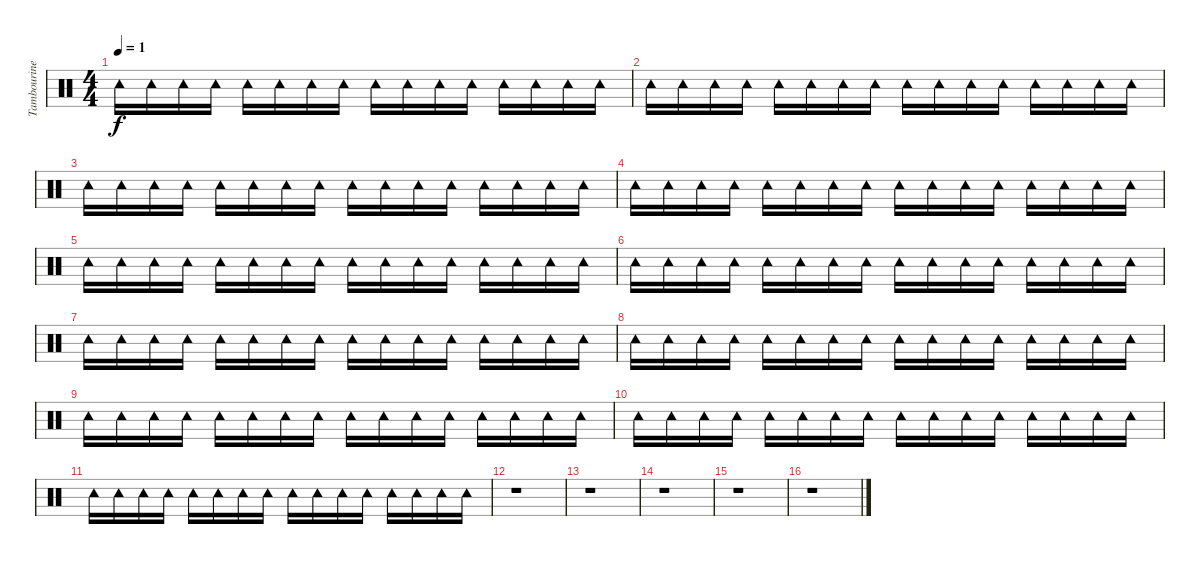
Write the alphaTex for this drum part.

\track ("Tambourine" "Tambourine") {instrument percussion}
\staff {score}
\articulation defaults
\ts (4 4)
\tempo 1
\clef neutral
\ks c "Tambourine (hit)".16{dy f} "Tambourine (hit)".16 "Tambourine (hit)".16 "Tambourine (hit)".16 "Tambourine (hit)".16 "Tambourine (hit)".16 "Tambourine (hit)".16 "Tambourine (hit)".16 "Tambourine (hit)".16 "Tambourine (hit)".16 "Tambourine (hit)".16 "Tambourine (hit)".16 "Tambourine (hit)".16 "Tambourine (hit)".16 "Tambourine (hit)".16 "Tambourine (hit)".16
|
"Tambourine (hit)".16 "Tambourine (hit)".16 "Tambourine (hit)".16 "Tambourine (hit)".16 "Tambourine (hit)".16 "Tambourine (hit)".16 "Tambourine (hit)".16 "Tambourine (hit)".16 "Tambourine (hit)".16 "Tambourine (hit)".16 "Tambourine (hit)".16 "Tambourine (hit)".16 "Tambourine (hit)".16 "Tambourine (hit)".16 "Tambourine (hit)".16 "Tambourine (hit)".16 |
"Tambourine (hit)".16 "Tambourine (hit)".16 "Tambourine (hit)".16 "Tambourine (hit)".16 "Tambourine (hit)".16 "Tambourine (hit)".16 "Tambourine (hit)".16 "Tambourine (hit)".16 "Tambourine (hit)".16 "Tambourine (hit)".16 "Tambourine (hit)".16 "Tambourine (hit)".16 "Tambourine (hit)".16 "Tambourine (hit)".16 "Tambourine (hit)".16 "Tambourine (hit)".16 |
"Tambourine (hit)".16 "Tambourine (hit)".16 "Tambourine (hit)".16 "Tambourine (hit)".16 "Tambourine (hit)".16 "Tambourine (hit)".16 "Tambourine (hit)".16 "Tambourine (hit)".16 "Tambourine (hit)".16 "Tambourine (hit)".16 "Tambourine (hit)".16 "Tambourine (hit)".16 "Tambourine (hit)".16 "Tambourine (hit)".16 "Tambourine (hit)".16 "Tambourine (hit)".16 |
"Tambourine (hit)".16 "Tambourine (hit)".16 "Tambourine (hit)".16 "Tambourine (hit)".16 "Tambourine (hit)".16 "Tambourine (hit)".16 "Tambourine (hit)".16 "Tambourine (hit)".16 "Tambourine (hit)".16 "Tambourine (hit)".16 "Tambourine (hit)".16 "Tambourine (hit)".16 "Tambourine (hit)".16 "Tambourine (hit)".16 "Tambourine (hit)".16 "Tambourine (hit)".16 |
"Tambourine (hit)".16 "Tambourine (hit)".16 "Tambourine (hit)".16 "Tambourine (hit)".16 "Tambourine (hit)".16 "Tambourine (hit)".16 "Tambourine (hit)".16 "Tambourine (hit)".16 "Tambourine (hit)".16 "Tambourine (hit)".16 "Tambourine (hit)".16 "Tambourine (hit)".16 "Tambourine (hit)".16 "Tambourine (hit)".16 "Tambourine (hit)".16 "Tambourine (hit)".16 |
"Tambourine (hit)".16 "Tambourine (hit)".16 "Tambourine (hit)".16 "Tambourine (hit)".16 "Tambourine (hit)".16 "Tambourine (hit)".16 "Tambourine (hit)".16 "Tambourine (hit)".16 "Tambourine (hit)".16 "Tambourine (hit)".16 "Tambourine (hit)".16 "Tambourine (hit)".16 "Tambourine (hit)".16 "Tambourine (hit)".16 "Tambourine (hit)".16 "Tambourine (hit)".16 |
"Tambourine (hit)".16 "Tambourine (hit)".16 "Tambourine (hit)".16 "Tambourine (hit)".16 "Tambourine (hit)".16 "Tambourine (hit)".16 "Tambourine (hit)".16 "Tambourine (hit)".16 "Tambourine (hit)".16 "Tambourine (hit)".16 "Tambourine (hit)".16 "Tambourine (hit)".16 "Tambourine (hit)".16 "Tambourine (hit)".16 "Tambourine (hit)".16 "Tambourine (hit)".16 |
"Tambourine (hit)".16 "Tambourine (hit)".16 "Tambourine (hit)".16 "Tambourine (hit)".16 "Tambourine (hit)".16 "Tambourine (hit)".16 "Tambourine (hit)".16 "Tambourine (hit)".16 "Tambourine (hit)".16 "Tambourine (hit)".16 "Tambourine (hit)".16 "Tambourine (hit)".16 "Tambourine (hit)".16 "Tambourine (hit)".16 "Tambourine (hit)".16 "Tambourine (hit)".16 |
"Tambourine (hit)".16 "Tambourine (hit)".16 "Tambourine (hit)".16 "Tambourine (hit)".16 "Tambourine (hit)".16 "Tambourine (hit)".16 "Tambourine (hit)".16 "Tambourine (hit)".16 "Tambourine (hit)".16 "Tambourine (hit)".16 "Tambourine (hit)".16 "Tambourine (hit)".16 "Tambourine (hit)".16 "Tambourine (hit)".16 "Tambourine (hit)".16 "Tambourine (hit)".16 |
"Tambourine (hit)".16 "Tambourine (hit)".16 "Tambourine (hit)".16 "Tambourine (hit)".16 "Tambourine (hit)".16 "Tambourine (hit)".16 "Tambourine (hit)".16 "Tambourine (hit)".16 "Tambourine (hit)".16 "Tambourine (hit)".16 "Tambourine (hit)".16 "Tambourine (hit)".16 "Tambourine (hit)".16 "Tambourine (hit)".16 "Tambourine (hit)".16 "Tambourine (hit)".16 |
r.1 |
r.1 |
r.1 |
r.1 |
r.1
